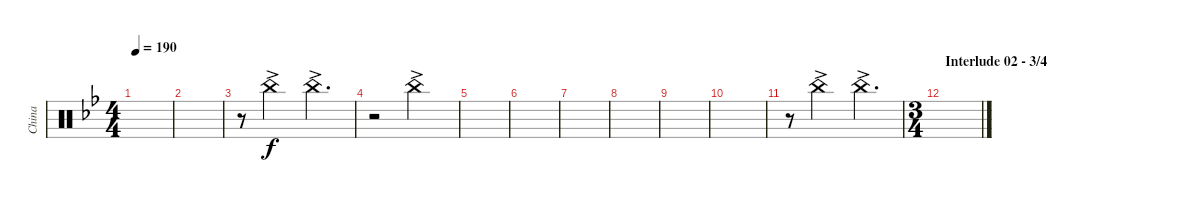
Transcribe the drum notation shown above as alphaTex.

\track ("China" "China") {instrument percussion}
\staff {score}
\articulation defaults
\ts (4 4)
\tempo 190
\clef neutral
\ks bb
|
|
r.8 "China (hit)"{ac}.2 "China (hit)"{ac}.4{d} |
r.2 "China (hit)"{ac}.2 |
|
|
|
|
|
|
r.8 "China (hit)"{ac}.2 "China (hit)"{ac}.4{d} |
\ts (3 4)
\section ("" "Interlude 02 - 3/4")
